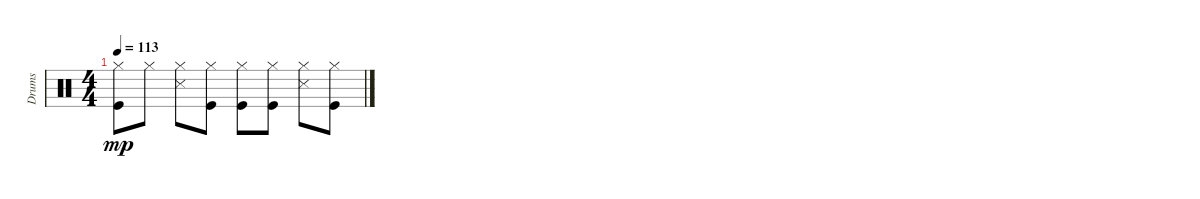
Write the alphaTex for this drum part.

\track ("Drums" "Drums") {instrument percussion}
\staff {score}
\articulation defaults
\ts (4 4)
\tempo 113
\clef neutral
\ks c
("Kick (hit)" "Hi-Hat (closed)").8{dy mp} "Hi-Hat (closed)".8 ("Snare (side stick) 3" "Hi-Hat (closed)").8 ("Kick (hit)" "Hi-Hat (closed)").8 ("Kick (hit)" "Hi-Hat (closed)").8 ("Kick (hit)" "Hi-Hat (closed)").8 ("Snare (side stick) 3" "Hi-Hat (closed)").8 ("Kick (hit)" "Hi-Hat (closed)").8
